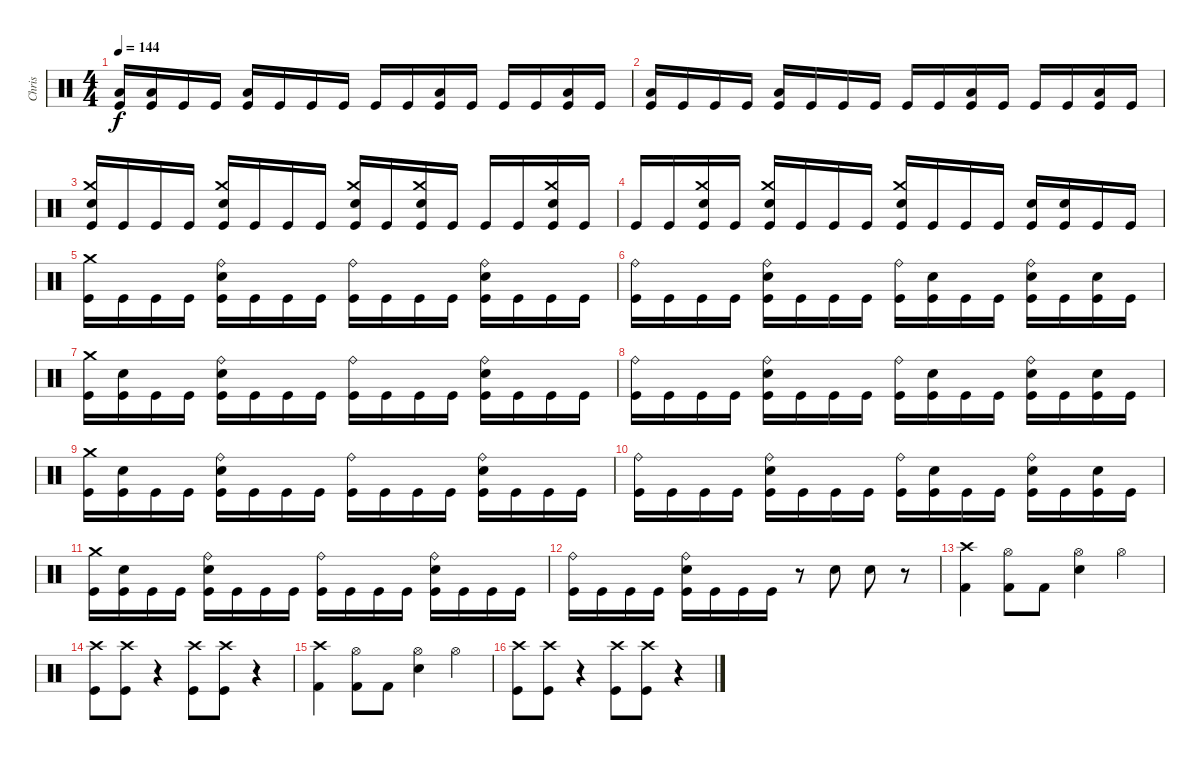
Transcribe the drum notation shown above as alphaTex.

\track ("Chris" "Chris") {instrument percussion}
\staff {score}
\articulation defaults
\ts (4 4)
\tempo 144
\clef neutral
\ks c
("Low Floor Tom (hit)" "Kick (hit)").16{dy f} ("Low Floor Tom (hit)" "Kick (hit)").16 "Kick (hit)".16 "Kick (hit)".16 ("Low Floor Tom (hit)" "Kick (hit)").16 "Kick (hit)".16 "Kick (hit)".16 "Kick (hit)".16 "Kick (hit)".16 "Kick (hit)".16 ("Low Floor Tom (hit)" "Kick (hit)").16 "Kick (hit)".16 "Kick (hit)".16 "Kick (hit)".16 ("Low Floor Tom (hit)" "Kick (hit)").16 "Kick (hit)".16 |
("Low Floor Tom (hit)" "Kick (hit)").16 "Kick (hit)".16 "Kick (hit)".16 "Kick (hit)".16 ("Low Floor Tom (hit)" "Kick (hit)").16 "Kick (hit)".16 "Kick (hit)".16 "Kick (hit)".16 "Kick (hit)".16 "Kick (hit)".16 ("Low Floor Tom (hit)" "Kick (hit)").16 "Kick (hit)".16 "Kick (hit)".16 "Kick (hit)".16 ("Low Floor Tom (hit)" "Kick (hit)").16 "Kick (hit)".16 |
("Crash medium (hit)" "Electric Snare (hit)" "Kick (hit)").16 "Kick (hit)".16 "Kick (hit)".16 "Kick (hit)".16 ("Crash medium (hit)" "Electric Snare (hit)" "Kick (hit)").16 "Kick (hit)".16 "Kick (hit)".16 "Kick (hit)".16 ("Crash medium (hit)" "Electric Snare (hit)" "Kick (hit)").16 "Kick (hit)".16 ("Crash medium (hit)" "Electric Snare (hit)" "Kick (hit)").16 "Kick (hit)".16 "Kick (hit)".16 "Kick (hit)".16 ("Crash medium (hit)" "Electric Snare (hit)" "Kick (hit)").16 "Kick (hit)".16 |
"Kick (hit)".16 "Kick (hit)".16 ("Crash medium (hit)" "Electric Snare (hit)" "Kick (hit)").16 "Kick (hit)".16 ("Crash medium (hit)" "Electric Snare (hit)" "Kick (hit)").16 "Kick (hit)".16 "Kick (hit)".16 "Kick (hit)".16 ("Crash medium (hit)" "Electric Snare (hit)" "Kick (hit)").16 "Kick (hit)".16 "Kick (hit)".16 "Kick (hit)".16 ("Electric Snare (hit)" "Kick (hit)").16 ("Electric Snare (hit)" "Kick (hit)").16 "Kick (hit)".16 "Kick (hit)".16 |
("Crash medium (hit)" "Kick (hit)").16 "Kick (hit)".16 "Kick (hit)".16 "Kick (hit)".16 ("Ride (bell)" "Electric Snare (hit)" "Kick (hit)").16 "Kick (hit)".16 "Kick (hit)".16 "Kick (hit)".16 ("Ride (bell)" "Kick (hit)").16 "Kick (hit)".16 "Kick (hit)".16 "Kick (hit)".16 ("Ride (bell)" "Electric Snare (hit)" "Kick (hit)").16 "Kick (hit)".16 "Kick (hit)".16 "Kick (hit)".16 |
("Ride (bell)" "Kick (hit)").16 "Kick (hit)".16 "Kick (hit)".16 "Kick (hit)".16 ("Ride (bell)" "Electric Snare (hit)" "Kick (hit)").16 "Kick (hit)".16 "Kick (hit)".16 "Kick (hit)".16 ("Ride (bell)" "Kick (hit)").16 ("Electric Snare (hit)" "Kick (hit)").16 "Kick (hit)".16 "Kick (hit)".16 ("Ride (bell)" "Electric Snare (hit)" "Kick (hit)").16 "Kick (hit)".16 ("Electric Snare (hit)" "Kick (hit)").16 "Kick (hit)".16 |
("Crash medium (hit)" "Kick (hit)").16 ("Electric Snare (hit)" "Kick (hit)").16 "Kick (hit)".16 "Kick (hit)".16 ("Ride (bell)" "Electric Snare (hit)" "Kick (hit)").16 "Kick (hit)".16 "Kick (hit)".16 "Kick (hit)".16 ("Ride (bell)" "Kick (hit)").16 "Kick (hit)".16 "Kick (hit)".16 "Kick (hit)".16 ("Ride (bell)" "Electric Snare (hit)" "Kick (hit)").16 "Kick (hit)".16 "Kick (hit)".16 "Kick (hit)".16 |
("Ride (bell)" "Kick (hit)").16 "Kick (hit)".16 "Kick (hit)".16 "Kick (hit)".16 ("Ride (bell)" "Electric Snare (hit)" "Kick (hit)").16 "Kick (hit)".16 "Kick (hit)".16 "Kick (hit)".16 ("Ride (bell)" "Kick (hit)").16 ("Electric Snare (hit)" "Kick (hit)").16 "Kick (hit)".16 "Kick (hit)".16 ("Ride (bell)" "Electric Snare (hit)" "Kick (hit)").16 "Kick (hit)".16 ("Electric Snare (hit)" "Kick (hit)").16 "Kick (hit)".16 |
("Crash medium (hit)" "Kick (hit)").16 ("Electric Snare (hit)" "Kick (hit)").16 "Kick (hit)".16 "Kick (hit)".16 ("Ride (bell)" "Electric Snare (hit)" "Kick (hit)").16 "Kick (hit)".16 "Kick (hit)".16 "Kick (hit)".16 ("Ride (bell)" "Kick (hit)").16 "Kick (hit)".16 "Kick (hit)".16 "Kick (hit)".16 ("Ride (bell)" "Electric Snare (hit)" "Kick (hit)").16 "Kick (hit)".16 "Kick (hit)".16 "Kick (hit)".16 |
("Ride (bell)" "Kick (hit)").16 "Kick (hit)".16 "Kick (hit)".16 "Kick (hit)".16 ("Ride (bell)" "Electric Snare (hit)" "Kick (hit)").16 "Kick (hit)".16 "Kick (hit)".16 "Kick (hit)".16 ("Ride (bell)" "Kick (hit)").16 ("Electric Snare (hit)" "Kick (hit)").16 "Kick (hit)".16 "Kick (hit)".16 ("Ride (bell)" "Electric Snare (hit)" "Kick (hit)").16 "Kick (hit)".16 ("Electric Snare (hit)" "Kick (hit)").16 "Kick (hit)".16 |
("Crash medium (hit)" "Kick (hit)").16 ("Electric Snare (hit)" "Kick (hit)").16 "Kick (hit)".16 "Kick (hit)".16 ("Ride (bell)" "Electric Snare (hit)" "Kick (hit)").16 "Kick (hit)".16 "Kick (hit)".16 "Kick (hit)".16 ("Ride (bell)" "Kick (hit)").16 "Kick (hit)".16 "Kick (hit)".16 "Kick (hit)".16 ("Ride (bell)" "Electric Snare (hit)" "Kick (hit)").16 "Kick (hit)".16 "Kick (hit)".16 "Kick (hit)".16 |
("Ride (bell)" "Kick (hit)").16 "Kick (hit)".16 "Kick (hit)".16 "Kick (hit)".16 ("Ride (bell)" "Electric Snare (hit)" "Kick (hit)").16 "Kick (hit)".16 "Kick (hit)".16 "Kick (hit)".16 r.8 "Electric Snare (hit)".8 "Electric Snare (hit)".8 r.8 |
("Crash high (hit)" "Kick (hit) 2").4 ("Hi-Hat (open)" "Kick (hit) 2").8 "Kick (hit) 2".8 ("Hi-Hat (open)" "Electric Snare (hit)").4 "Hi-Hat (open)".4 |
("Crash high (hit)" "Kick (hit)").8 ("Crash high (hit)" "Kick (hit)").8 r.4 ("Crash high (hit)" "Kick (hit)").8 ("Crash high (hit)" "Kick (hit)").8 r.4 |
("Crash high (hit)" "Kick (hit) 2").4 ("Hi-Hat (open)" "Kick (hit) 2").8 "Kick (hit) 2".8 ("Hi-Hat (open)" "Electric Snare (hit)").4 "Hi-Hat (open)".4 |
("Crash high (hit)" "Kick (hit)").8 ("Crash high (hit)" "Kick (hit)").8 r.4 ("Crash high (hit)" "Kick (hit)").8 ("Crash high (hit)" "Kick (hit)").8 r.4
